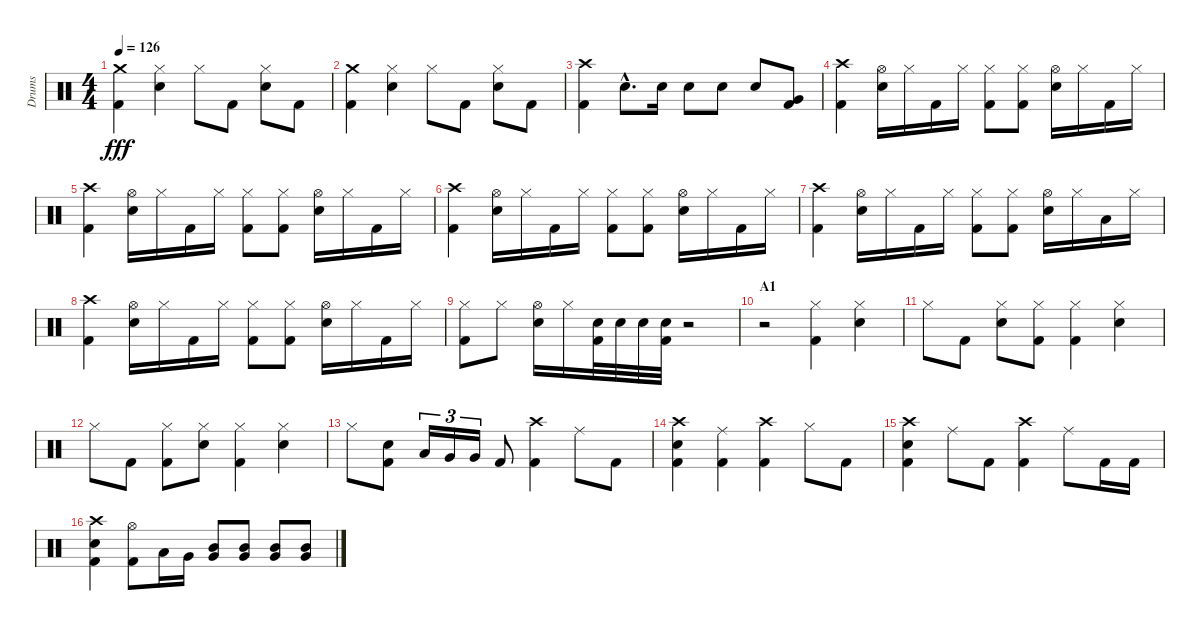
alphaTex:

\track ("Drums" "Drums") {instrument percussion}
\staff {score}
\articulation defaults
\ts (4 4)
\tempo 126
\clef neutral
\ks c
("Crash medium (hit)" "Kick (hit) 2").4{dy fff} ("Hi-Hat (closed)" "Electric Snare (hit)").4 "Hi-Hat (closed)".8 "Kick (hit) 2".8 ("Hi-Hat (closed)" "Electric Snare (hit)").8 "Kick (hit) 2".8 |
("Crash medium (hit)" "Kick (hit) 2").4 ("Hi-Hat (closed)" "Electric Snare (hit)").4 "Hi-Hat (closed)".8 "Kick (hit) 2".8 ("Hi-Hat (closed)" "Electric Snare (hit)").8 "Kick (hit) 2".8 |
("Crash high (hit)" "Kick (hit) 2").4 "Electric Snare (hit)"{hac}.8{d} "Electric Snare (hit)".16 "Electric Snare (hit)".8 "Electric Snare (hit)".8 "Electric Snare (hit)".8 ("Very Low Tom (hit)" "Kick (hit) 2").8 |
("Crash high (hit)" "Kick (hit) 2").4 ("Hi-Hat (open)" "Electric Snare (hit)").16 "Hi-Hat (closed)".16 "Kick (hit) 2".16 "Hi-Hat (closed)".16 ("Hi-Hat (closed)" "Kick (hit) 2").8 ("Hi-Hat (closed)" "Kick (hit) 2").8 ("Hi-Hat (open)" "Electric Snare (hit)").16 "Hi-Hat (closed)".16 "Kick (hit) 2".16 "Hi-Hat (closed)".16 |
("Crash high (hit)" "Kick (hit) 2").4 ("Hi-Hat (open)" "Electric Snare (hit)").16 "Hi-Hat (closed)".16 "Kick (hit) 2".16 "Hi-Hat (closed)".16 ("Hi-Hat (closed)" "Kick (hit) 2").8 ("Hi-Hat (closed)" "Kick (hit) 2").8 ("Hi-Hat (open)" "Electric Snare (hit)").16 "Hi-Hat (closed)".16 "Kick (hit) 2".16 "Hi-Hat (closed)".16 |
("Crash high (hit)" "Kick (hit) 2").4 ("Hi-Hat (open)" "Electric Snare (hit)").16 "Hi-Hat (closed)".16 "Kick (hit) 2".16 "Hi-Hat (closed)".16 ("Hi-Hat (closed)" "Kick (hit) 2").8 ("Hi-Hat (closed)" "Kick (hit) 2").8 ("Hi-Hat (open)" "Electric Snare (hit)").16 "Hi-Hat (closed)".16 "Kick (hit) 2".16 "Hi-Hat (closed)".16 |
("Crash high (hit)" "Kick (hit) 2").4 ("Hi-Hat (open)" "Electric Snare (hit)").16 "Hi-Hat (closed)".16 "Kick (hit) 2".16 "Hi-Hat (closed)".16 ("Hi-Hat (closed)" "Kick (hit) 2").8 ("Hi-Hat (closed)" "Kick (hit) 2").8 ("Hi-Hat (open)" "Electric Snare (hit)").16 "Hi-Hat (closed)".16 "Low Tom (hit)".16 "Hi-Hat (closed)".16 |
("Crash high (hit)" "Kick (hit) 2").4 ("Hi-Hat (open)" "Electric Snare (hit)").16 "Hi-Hat (closed)".16 "Kick (hit) 2".16 "Hi-Hat (closed)".16 ("Hi-Hat (closed)" "Kick (hit) 2").8 ("Hi-Hat (closed)" "Kick (hit) 2").8 ("Hi-Hat (open)" "Electric Snare (hit)").16 "Hi-Hat (closed)".16 "Kick (hit) 2".16 "Hi-Hat (closed)".16 |
("Hi-Hat (closed)" "Kick (hit) 2").8 "Hi-Hat (closed)".8 ("Hi-Hat (open)" "Electric Snare (hit)").16 "Hi-Hat (closed)".16 ("Electric Snare (hit)" "Kick (hit) 2").32 "Electric Snare (hit)".32 "Electric Snare (hit)".32 ("Electric Snare (hit)" "Kick (hit) 2").32 r.2 |
\section ("" "A1")
r.2 ("Hi-Hat (closed)" "Kick (hit) 2").4 ("Hi-Hat (closed)" "Electric Snare (hit)").4 |
"Hi-Hat (closed)".8 "Kick (hit) 2".8 ("Hi-Hat (closed)" "Electric Snare (hit)").8 ("Hi-Hat (closed)" "Kick (hit) 2").8 ("Hi-Hat (closed)" "Kick (hit) 2").4 ("Hi-Hat (closed)" "Electric Snare (hit)").4 |
"Hi-Hat (closed)".8 "Kick (hit) 2".8 ("Hi-Hat (closed)" "Kick (hit) 2").8 ("Hi-Hat (closed)" "Electric Snare (hit)").8 ("Hi-Hat (closed)" "Kick (hit) 2").4 ("Hi-Hat (closed)" "Electric Snare (hit)").4 |
"Hi-Hat (closed)".8 ("Electric Snare (hit)" "Kick (hit) 2").8 "Low Tom (hit)".16{tu (3 2)} "Very Low Tom (hit)".16{tu (3 2)} "Very Low Tom (hit)".16{tu (3 2)} "Kick (hit) 2".8 ("Crash high (hit)" "Kick (hit) 2").4 "Ride (middle)".8 "Kick (hit) 2".8 |
("Crash high (hit)" "Electric Snare (hit)" "Kick (hit) 2").4 ("Ride (middle)" "Kick (hit) 2").4 ("Crash high (hit)" "Kick (hit) 2").4 "Hi-Hat (closed)".8 "Kick (hit) 2".8 |
("Crash high (hit)" "Electric Snare (hit)" "Kick (hit) 2").4 "Ride (middle)".8 "Kick (hit) 2".8 ("Crash high (hit)" "Kick (hit) 2").4 "Ride (middle)".8 "Kick (hit) 2".16 "Kick (hit) 2".16 |
("Crash high (hit)" "Electric Snare (hit)" "Kick (hit) 2").4 ("Hi-Hat (open)" "Kick (hit) 2").8 "Low Tom (hit)".16 "Very Low Tom (hit)".16 ("Mid Tom (hit)" "Very Low Tom (hit)").8 ("Mid Tom (hit)" "Very Low Tom (hit)").8 ("Mid Tom (hit)" "Very Low Tom (hit)").8 ("Mid Tom (hit)" "Very Low Tom (hit)").8
